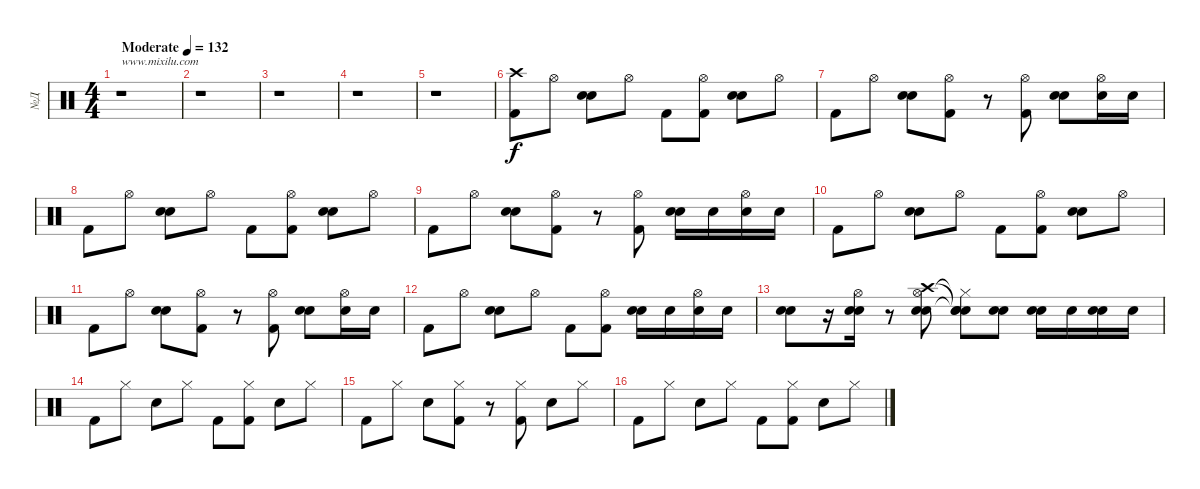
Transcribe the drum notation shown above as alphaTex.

\track ("№Д" "№Д") {instrument percussion}
\staff {score}
\articulation defaults
\ts (4 4)
\tempo (132 "Moderate")
\clef neutral
\ks c
r.1{txt "www.mixilu.com" dy f} |
r.1 |
r.1 |
r.1 |
r.1 |
("Crash high (hit)" "Kick (hit) 2").8 "Hi-Hat (open)".8 ("Hand Clap (hit)" "Snare (hit) 2").8 "Hi-Hat (open)".8 "Kick (hit) 2".8 ("Hi-Hat (open)" "Kick (hit) 2").8 ("Hand Clap (hit)" "Snare (hit) 2").8 "Hi-Hat (open)".8 |
"Kick (hit) 2".8 "Hi-Hat (open)".8 ("Hand Clap (hit)" "Snare (hit) 2").8 ("Hi-Hat (open)" "Kick (hit) 2").8 r.8 ("Hi-Hat (open)" "Kick (hit) 2").8 ("Hand Clap (hit)" "Snare (hit) 2").8 ("Hi-Hat (open)" "Snare (hit) 2").16 "Snare (hit) 2".16 |
"Kick (hit) 2".8 "Hi-Hat (open)".8 ("Hand Clap (hit)" "Snare (hit) 2").8 "Hi-Hat (open)".8 "Kick (hit) 2".8 ("Hi-Hat (open)" "Kick (hit) 2").8 ("Hand Clap (hit)" "Snare (hit) 2").8 "Hi-Hat (open)".8 |
"Kick (hit) 2".8 "Hi-Hat (open)".8 ("Hand Clap (hit)" "Snare (hit) 2").8 ("Hi-Hat (open)" "Kick (hit) 2").8 r.8 ("Hi-Hat (open)" "Kick (hit) 2").8 ("Hand Clap (hit)" "Snare (hit) 2").16 "Snare (hit) 2".16 ("Hi-Hat (open)" "Snare (hit) 2").16 "Snare (hit) 2".16 |
"Kick (hit) 2".8 "Hi-Hat (open)".8 ("Hand Clap (hit)" "Snare (hit) 2").8 "Hi-Hat (open)".8 "Kick (hit) 2".8 ("Hi-Hat (open)" "Kick (hit) 2").8 ("Hand Clap (hit)" "Snare (hit) 2").8 "Hi-Hat (open)".8 |
"Kick (hit) 2".8 "Hi-Hat (open)".8 ("Hand Clap (hit)" "Snare (hit) 2").8 ("Hi-Hat (open)" "Kick (hit) 2").8 r.8 ("Hi-Hat (open)" "Kick (hit) 2").8 ("Hand Clap (hit)" "Snare (hit) 2").8 ("Hi-Hat (open)" "Snare (hit) 2").16 "Snare (hit) 2".16 |
"Kick (hit) 2".8 "Hi-Hat (open)".8 ("Hand Clap (hit)" "Snare (hit) 2").8 "Hi-Hat (open)".8 "Kick (hit) 2".8 ("Hi-Hat (open)" "Kick (hit) 2").8 ("Hand Clap (hit)" "Snare (hit) 2").16 "Snare (hit) 2".16 ("Hi-Hat (open)" "Snare (hit) 2").16 "Snare (hit) 2".16 |
("Snare (hit) 2" "Electric Snare (hit)").8 r.16 ("Hi-Hat (open)" "Snare (hit) 2" "Electric Snare (hit)").16 r.8 ("Crash high (hit)" "Hi-Hat (open)" "Snare (hit) 2" "Electric Snare (hit)").8 ("Snare (hit)"{t} "Hi-Hat (closed)"{t} "Snare (hit)"{t} "Snare (hit) 2").8 ("Hand Clap (hit)" "Snare (hit) 2").8 ("Hand Clap (hit)" "Snare (hit) 2").16 "Snare (hit) 2".16 ("Hand Clap (hit)" "Snare (hit) 2").16 "Snare (hit) 2".16 |
"Kick (hit) 2".8 "Hi-Hat (closed)".8 "Snare (hit) 2".8 "Hi-Hat (closed)".8 "Kick (hit) 2".8 ("Hi-Hat (closed)" "Kick (hit) 2").8 "Snare (hit) 2".8 "Hi-Hat (closed)".8 |
"Kick (hit) 2".8 "Hi-Hat (closed)".8 "Snare (hit) 2".8 ("Hi-Hat (closed)" "Kick (hit) 2").8 r.8 ("Hi-Hat (closed)" "Kick (hit) 2").8 "Snare (hit) 2".8 "Hi-Hat (closed)".8 |
"Kick (hit) 2".8 "Hi-Hat (closed)".8 "Snare (hit) 2".8 "Hi-Hat (closed)".8 "Kick (hit) 2".8 ("Hi-Hat (closed)" "Kick (hit) 2").8 "Snare (hit) 2".8 "Hi-Hat (closed)".8
